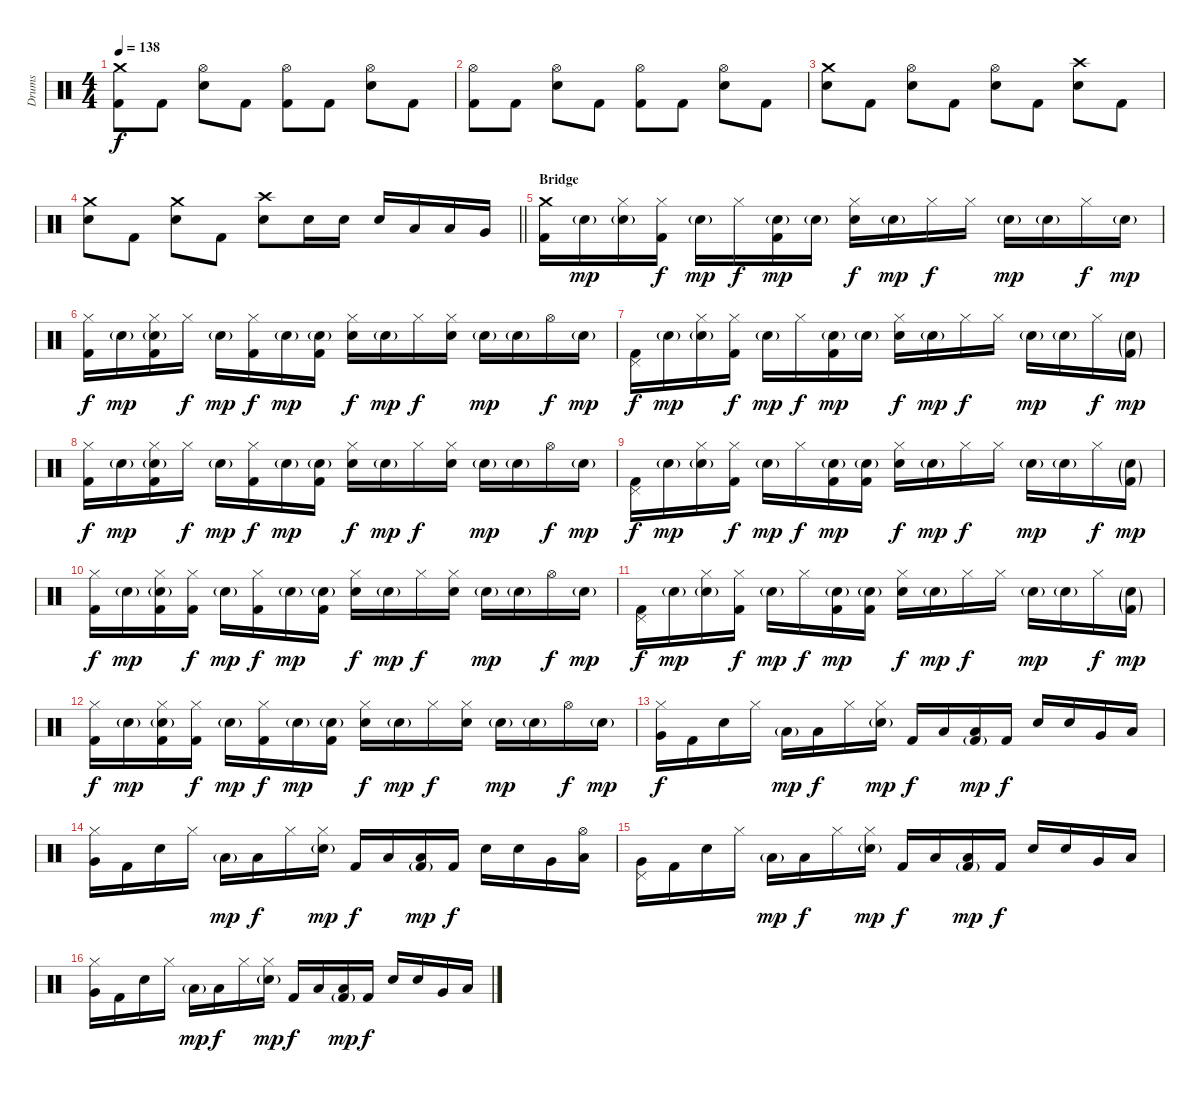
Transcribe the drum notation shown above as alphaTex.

\track ("Drums" "Drums") {instrument percussion}
\staff {score}
\articulation defaults
\ts (4 4)
\tempo 138
\clef neutral
\ks c
("Crash medium (hit)" "Kick (hit) 2").8{dy f} "Kick (hit) 2".8 ("Hi-Hat (open)" "Electric Snare (hit)").8 "Kick (hit) 2".8 ("Hi-Hat (open)" "Kick (hit) 2").8 "Kick (hit) 2".8 ("Hi-Hat (open)" "Electric Snare (hit)").8 "Kick (hit) 2".8 |
("Hi-Hat (open)" "Kick (hit) 2").8 "Kick (hit) 2".8 ("Hi-Hat (open)" "Electric Snare (hit)").8 "Kick (hit) 2".8 ("Hi-Hat (open)" "Kick (hit) 2").8 "Kick (hit) 2".8 ("Hi-Hat (open)" "Electric Snare (hit)").8 "Kick (hit) 2".8 |
("Crash medium (hit)" "Electric Snare (hit)").8 "Kick (hit) 2".8 ("Hi-Hat (open)" "Electric Snare (hit)").8 "Kick (hit) 2".8 ("Hi-Hat (open)" "Electric Snare (hit)").8 "Kick (hit) 2".8 ("Crash high (hit)" "Electric Snare (hit)").8 "Kick (hit) 2".8 |
\barLineRight lightlight
("Crash medium (hit)" "Electric Snare (hit)").8 "Kick (hit) 2".8 ("Crash medium (hit)" "Electric Snare (hit)").8 "Kick (hit) 2".8 ("Crash high (hit)" "Electric Snare (hit)").8 "Electric Snare (hit)".16 "Electric Snare (hit)".16 "Electric Snare (hit)".16 "Low Tom (hit)".16 "Low Tom (hit)".16 "Very Low Tom (hit)".16 |
\section ("" "Bridge")
("Crash medium (hit)" "Kick (hit) 2").16{volume 10} "Electric Snare (hit)"{g}.16{dy mp} ("Hi-Hat (closed)" "Electric Snare (hit)"{g}).16 ("Hi-Hat (closed)" "Kick (hit) 2").16{dy f} "Electric Snare (hit)"{g}.16{dy mp} "Hi-Hat (closed)".16{dy f} ("Electric Snare (hit)"{g} "Kick (hit) 2").16{dy mp} "Electric Snare (hit)"{g}.16 ("Hi-Hat (closed)" "Electric Snare (hit)").16{dy f} "Electric Snare (hit)"{g}.16{dy mp} "Hi-Hat (closed)".16{dy f} "Hi-Hat (closed)".16 "Electric Snare (hit)"{g}.16{dy mp} "Electric Snare (hit)"{g}.16 "Hi-Hat (closed)".16{dy f} "Electric Snare (hit)"{g}.16{dy mp} |
("Hi-Hat (closed)" "Kick (hit) 2").16{dy f} "Electric Snare (hit)"{g}.16{dy mp} ("Hi-Hat (closed)" "Electric Snare (hit)"{g} "Kick (hit) 2").16 "Hi-Hat (closed)".16{dy f} "Electric Snare (hit)"{g}.16{dy mp} ("Hi-Hat (closed)" "Kick (hit) 2").16{dy f} "Electric Snare (hit)"{g}.16{dy mp} ("Electric Snare (hit)"{g} "Kick (hit) 2").16 ("Hi-Hat (closed)" "Electric Snare (hit)").16{dy f} "Electric Snare (hit)"{g}.16{dy mp} "Hi-Hat (closed)".16{dy f} ("Hi-Hat (closed)" "Electric Snare (hit)").16 "Electric Snare (hit)"{g}.16{dy mp} "Electric Snare (hit)"{g}.16 "Hi-Hat (open)".16{dy f} "Electric Snare (hit)"{g}.16{dy mp} |
("Pedal Hi-Hat (hit)" "Kick (hit) 2").16{dy f} "Electric Snare (hit)"{g}.16{dy mp} ("Hi-Hat (closed)" "Electric Snare (hit)"{g}).16 ("Hi-Hat (closed)" "Kick (hit) 2").16{dy f} "Electric Snare (hit)"{g}.16{dy mp} "Hi-Hat (closed)".16{dy f} ("Electric Snare (hit)"{g} "Kick (hit) 2").16{dy mp} "Electric Snare (hit)"{g}.16 ("Hi-Hat (closed)" "Electric Snare (hit)").16{dy f} "Electric Snare (hit)"{g}.16{dy mp} "Hi-Hat (closed)".16{dy f} "Hi-Hat (closed)".16 "Electric Snare (hit)"{g}.16{dy mp} "Electric Snare (hit)"{g}.16 "Hi-Hat (closed)".16{dy f} ("Electric Snare (hit)"{g} "Kick (hit) 2"{g}).16{dy mp} |
("Hi-Hat (closed)" "Kick (hit) 2").16{dy f} "Electric Snare (hit)"{g}.16{dy mp} ("Hi-Hat (closed)" "Electric Snare (hit)"{g} "Kick (hit) 2").16 "Hi-Hat (closed)".16{dy f} "Electric Snare (hit)"{g}.16{dy mp} ("Hi-Hat (closed)" "Kick (hit) 2").16{dy f} "Electric Snare (hit)"{g}.16{dy mp} ("Electric Snare (hit)"{g} "Kick (hit) 2").16 ("Hi-Hat (closed)" "Electric Snare (hit)").16{dy f} "Electric Snare (hit)"{g}.16{dy mp} "Hi-Hat (closed)".16{dy f} ("Hi-Hat (closed)" "Electric Snare (hit)").16 "Electric Snare (hit)"{g}.16{dy mp} "Electric Snare (hit)"{g}.16 "Hi-Hat (open)".16{dy f} "Electric Snare (hit)"{g}.16{dy mp} |
("Pedal Hi-Hat (hit)" "Kick (hit) 2").16{dy f} "Electric Snare (hit)"{g}.16{dy mp} ("Hi-Hat (closed)" "Electric Snare (hit)"{g}).16 ("Hi-Hat (closed)" "Kick (hit) 2").16{dy f} "Electric Snare (hit)"{g}.16{dy mp} "Hi-Hat (closed)".16{dy f} ("Electric Snare (hit)"{g} "Kick (hit) 2").16{dy mp} ("Electric Snare (hit)"{g} "Kick (hit) 2").16 ("Hi-Hat (closed)" "Electric Snare (hit)").16{dy f} "Electric Snare (hit)"{g}.16{dy mp} "Hi-Hat (closed)".16{dy f} "Hi-Hat (closed)".16 "Electric Snare (hit)"{g}.16{dy mp} "Electric Snare (hit)"{g}.16 "Hi-Hat (closed)".16{dy f} ("Electric Snare (hit)"{g} "Kick (hit) 2"{g}).16{dy mp} |
("Hi-Hat (closed)" "Kick (hit) 2").16{dy f} "Electric Snare (hit)"{g}.16{dy mp} ("Hi-Hat (closed)" "Electric Snare (hit)"{g} "Kick (hit) 2").16 ("Hi-Hat (closed)" "Kick (hit) 2").16{dy f} "Electric Snare (hit)"{g}.16{dy mp} ("Hi-Hat (closed)" "Kick (hit) 2").16{dy f} "Electric Snare (hit)"{g}.16{dy mp} ("Electric Snare (hit)"{g} "Kick (hit) 2").16 ("Hi-Hat (closed)" "Electric Snare (hit)").16{dy f} "Electric Snare (hit)"{g}.16{dy mp} "Hi-Hat (closed)".16{dy f} ("Hi-Hat (closed)" "Electric Snare (hit)").16 "Electric Snare (hit)"{g}.16{dy mp} "Electric Snare (hit)"{g}.16 "Hi-Hat (open)".16{dy f} "Electric Snare (hit)"{g}.16{dy mp} |
("Pedal Hi-Hat (hit)" "Kick (hit) 2").16{dy f} "Electric Snare (hit)"{g}.16{dy mp} ("Hi-Hat (closed)" "Electric Snare (hit)"{g}).16 ("Hi-Hat (closed)" "Kick (hit) 2").16{dy f} "Electric Snare (hit)"{g}.16{dy mp} "Hi-Hat (closed)".16{dy f} ("Electric Snare (hit)"{g} "Kick (hit) 2").16{dy mp} ("Electric Snare (hit)"{g} "Kick (hit) 2").16 ("Hi-Hat (closed)" "Electric Snare (hit)").16{dy f} "Electric Snare (hit)"{g}.16{dy mp} "Hi-Hat (closed)".16{dy f} "Hi-Hat (closed)".16 "Electric Snare (hit)"{g}.16{dy mp} "Electric Snare (hit)"{g}.16 "Hi-Hat (closed)".16{dy f} ("Electric Snare (hit)"{g} "Kick (hit) 2"{g}).16{dy mp} |
("Hi-Hat (closed)" "Kick (hit) 2").16{dy f} "Electric Snare (hit)"{g}.16{dy mp} ("Hi-Hat (closed)" "Electric Snare (hit)"{g} "Kick (hit) 2").16 ("Hi-Hat (closed)" "Kick (hit) 2").16{dy f} "Electric Snare (hit)"{g}.16{dy mp} ("Hi-Hat (closed)" "Kick (hit) 2").16{dy f} "Electric Snare (hit)"{g}.16{dy mp} ("Electric Snare (hit)"{g} "Kick (hit) 2").16 ("Hi-Hat (closed)" "Electric Snare (hit)").16{dy f} "Electric Snare (hit)"{g}.16{dy mp} "Hi-Hat (closed)".16{dy f} ("Hi-Hat (closed)" "Electric Snare (hit)").16 "Electric Snare (hit)"{g}.16{dy mp} "Electric Snare (hit)"{g}.16 "Hi-Hat (open)".16{dy f} "Electric Snare (hit)"{g}.16{dy mp} |
("Hi-Hat (closed)" "Very Low Tom (hit)").16{dy f volume 12} "Kick (hit) 2".16 "Electric Snare (hit)".16 "Hi-Hat (closed)".16 "Low Floor Tom (hit)"{g}.16{dy mp} "Low Tom (hit)".16{dy f} "Hi-Hat (closed)".16 ("Hi-Hat (closed)" "Electric Snare (hit)"{g}).16{dy mp} "Kick (hit) 2".16{dy f} "Low Floor Tom (hit)".16 ("Low Floor Tom (hit)" "Kick (hit) 2"{g}).16{dy mp} "Kick (hit) 2".16{dy f} "Electric Snare (hit)".16 "Electric Snare (hit)".16 "Very Low Tom (hit)".16 "Low Floor Tom (hit)".16 |
("Hi-Hat (closed)" "Very Low Tom (hit)").16 "Kick (hit) 2".16 "Electric Snare (hit)".16 "Hi-Hat (closed)".16 "Low Floor Tom (hit)"{g}.16{dy mp} "Low Tom (hit)".16{dy f} "Hi-Hat (closed)".16 ("Hi-Hat (closed)" "Electric Snare (hit)"{g}).16{dy mp} "Kick (hit) 2".16{dy f} "Low Floor Tom (hit)".16 ("Low Floor Tom (hit)" "Kick (hit) 2"{g}).16{dy mp} "Kick (hit) 2".16{dy f} "Electric Snare (hit)".16 "Electric Snare (hit)".16 "Very Low Tom (hit)".16 ("Hi-Hat (open)" "Low Floor Tom (hit)").16 |
("Pedal Hi-Hat (hit)" "Very Low Tom (hit)").16 "Kick (hit) 2".16 "Electric Snare (hit)".16 "Hi-Hat (closed)".16 "Low Floor Tom (hit)"{g}.16{dy mp} "Low Tom (hit)".16{dy f} "Hi-Hat (closed)".16 ("Hi-Hat (closed)" "Electric Snare (hit)"{g}).16{dy mp} "Kick (hit) 2".16{dy f} "Low Floor Tom (hit)".16 ("Low Floor Tom (hit)" "Kick (hit) 2"{g}).16{dy mp} "Kick (hit) 2".16{dy f} "Electric Snare (hit)".16 "Electric Snare (hit)".16 "Very Low Tom (hit)".16 "Low Floor Tom (hit)".16 |
("Hi-Hat (closed)" "Very Low Tom (hit)").16 "Kick (hit) 2".16 "Electric Snare (hit)".16 "Hi-Hat (closed)".16 "Low Floor Tom (hit)"{g}.16{dy mp} "Low Tom (hit)".16{dy f} "Hi-Hat (closed)".16 ("Hi-Hat (closed)" "Electric Snare (hit)"{g}).16{dy mp} "Kick (hit) 2".16{dy f} "Low Floor Tom (hit)".16 ("Low Floor Tom (hit)" "Kick (hit) 2"{g}).16{dy mp} "Kick (hit) 2".16{dy f} "Electric Snare (hit)".16 "Electric Snare (hit)".16 "Very Low Tom (hit)".16 "Low Floor Tom (hit)".16
